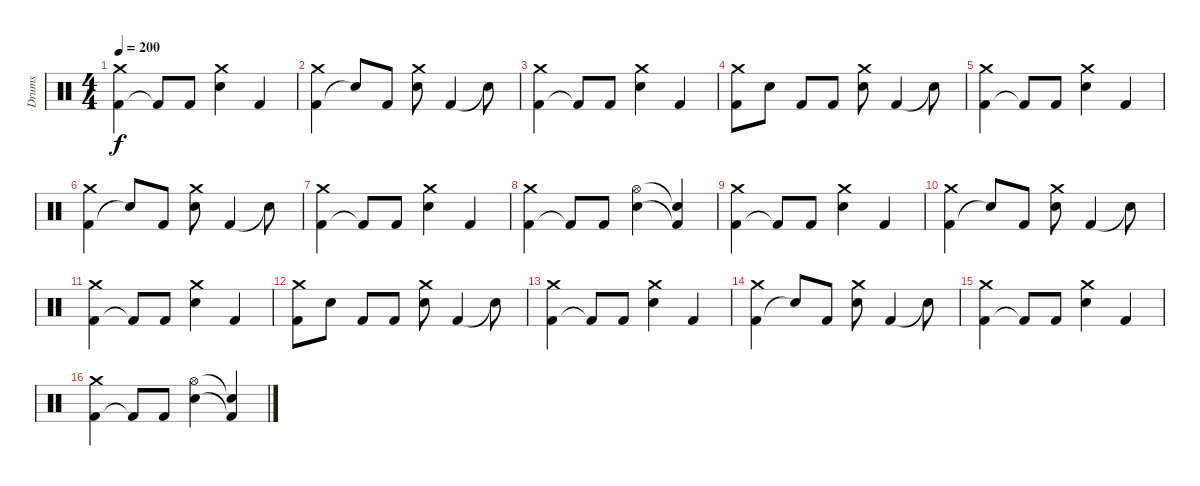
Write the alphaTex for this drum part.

\track ("Drums" "Drums") {instrument percussion}
\staff {score}
\articulation defaults
\ts (4 4)
\tempo 200
\clef neutral
\ks c
("Kick (hit) 2" "Crash medium (hit)").4{dy f} "Kick (hit) 2"{t}.8 "Kick (hit) 2".8 ("Electric Snare (hit)" "Crash medium (hit)").4 "Kick (hit) 2".4 |
("Kick (hit) 2" "Crash medium (hit)").4 "Electric Snare (hit)"{t}.8 "Kick (hit) 2".8 ("Electric Snare (hit)" "Crash medium (hit)").8 "Kick (hit) 2".4 "Snare (hit)"{t}.8 |
("Kick (hit) 2" "Crash medium (hit)").4 "Kick (hit) 2"{t}.8 "Kick (hit) 2".8 ("Electric Snare (hit)" "Crash medium (hit)").4 "Kick (hit) 2".4 |
("Kick (hit) 2" "Crash medium (hit)").8 "Electric Snare (hit)".8 "Kick (hit) 2".8 "Kick (hit) 2".8 ("Electric Snare (hit)" "Crash medium (hit)").8 "Kick (hit) 2".4 "Snare (hit)"{t}.8 |
("Kick (hit) 2" "Crash medium (hit)").4 "Kick (hit) 2"{t}.8 "Kick (hit) 2".8 ("Electric Snare (hit)" "Crash medium (hit)").4 "Kick (hit) 2".4 |
("Kick (hit) 2" "Crash medium (hit)").4 "Electric Snare (hit)"{t}.8 "Kick (hit) 2".8 ("Electric Snare (hit)" "Crash medium (hit)").8 "Kick (hit) 2".4 "Snare (hit)"{t}.8 |
("Kick (hit) 2" "Crash medium (hit)").4 "Kick (hit) 2"{t}.8 "Kick (hit) 2".8 ("Electric Snare (hit)" "Crash medium (hit)").4 "Kick (hit) 2".4 |
("Kick (hit) 2" "Crash medium (hit)").4 "Kick (hit) 2"{t}.8 "Kick (hit) 2".8 ("Electric Snare (hit)" "Hi-Hat (open)").4 ("Kick (hit) 2"{t} "Snare (hit)"{t}).4 |
("Kick (hit) 2" "Crash medium (hit)").4 "Kick (hit) 2"{t}.8 "Kick (hit) 2".8 ("Electric Snare (hit)" "Crash medium (hit)").4 "Kick (hit) 2".4 |
("Kick (hit) 2" "Crash medium (hit)").4 "Electric Snare (hit)"{t}.8 "Kick (hit) 2".8 ("Electric Snare (hit)" "Crash medium (hit)").8 "Kick (hit) 2".4 "Snare (hit)"{t}.8 |
("Kick (hit) 2" "Crash medium (hit)").4 "Kick (hit) 2"{t}.8 "Kick (hit) 2".8 ("Electric Snare (hit)" "Crash medium (hit)").4 "Kick (hit) 2".4 |
("Kick (hit) 2" "Crash medium (hit)").8 "Electric Snare (hit)".8 "Kick (hit) 2".8 "Kick (hit) 2".8 ("Electric Snare (hit)" "Crash medium (hit)").8 "Kick (hit) 2".4 "Snare (hit)"{t}.8 |
("Kick (hit) 2" "Crash medium (hit)").4 "Kick (hit) 2"{t}.8 "Kick (hit) 2".8 ("Electric Snare (hit)" "Crash medium (hit)").4 "Kick (hit) 2".4 |
("Kick (hit) 2" "Crash medium (hit)").4 "Electric Snare (hit)"{t}.8 "Kick (hit) 2".8 ("Electric Snare (hit)" "Crash medium (hit)").8 "Kick (hit) 2".4 "Snare (hit)"{t}.8 |
("Kick (hit) 2" "Crash medium (hit)").4 "Kick (hit) 2"{t}.8 "Kick (hit) 2".8 ("Electric Snare (hit)" "Crash medium (hit)").4 "Kick (hit) 2".4 |
("Kick (hit) 2" "Crash medium (hit)").4 "Kick (hit) 2"{t}.8 "Kick (hit) 2".8 ("Electric Snare (hit)" "Hi-Hat (open)").4 ("Kick (hit) 2"{t} "Snare (hit)"{t}).4
